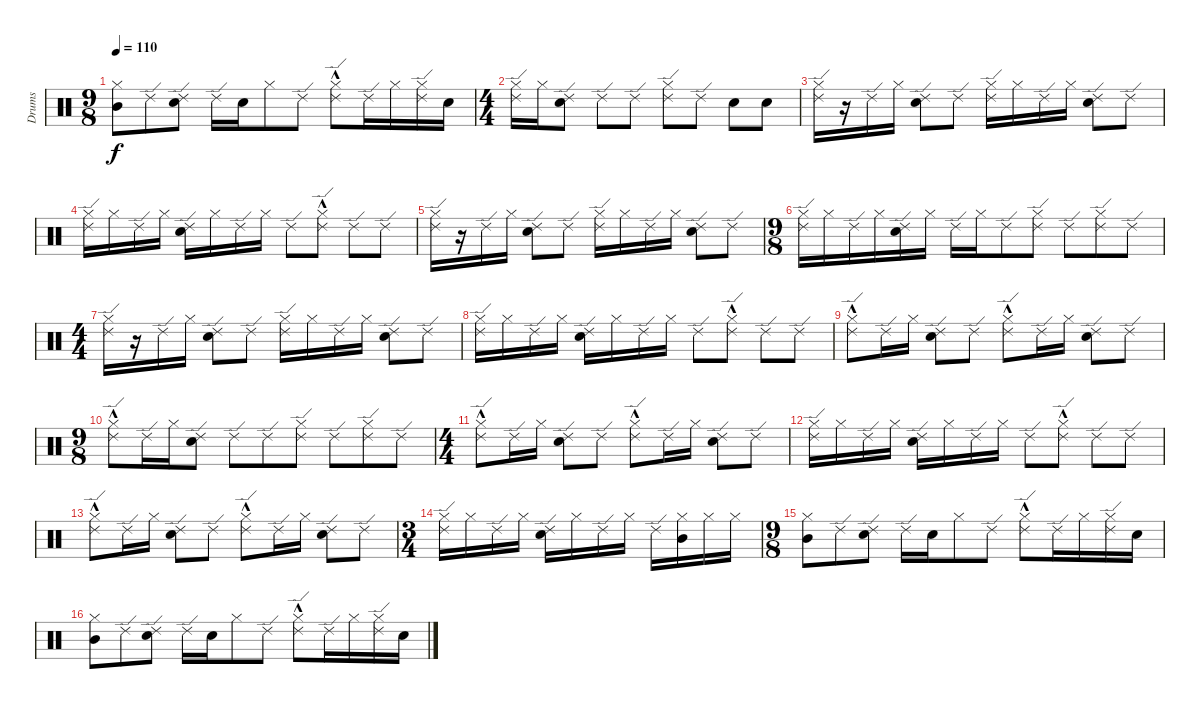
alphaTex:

\track ("Drums" "Drums") {instrument percussion}
\staff {score}
\articulation defaults
\ts (9 8)
\tempo 110
\clef neutral
\ks c
("Hi-Hat (closed)" "Mid Tom (hit)").8{dy f} "Ride (edge) 2".8 ("Snare (hit) 2" "Ride (edge) 2").8 "Ride (edge) 2".16 "Snare (hit) 2".16 "Hi-Hat (closed)".8 "Ride (edge) 2".8 ("Hi-Hat (closed)"{hac} "Ride (edge) 2").8 "Ride (edge) 2".16 "Hi-Hat (closed)".16 ("Hi-Hat (closed)" "Ride (edge) 2").16 "Snare (hit) 2".16 |
\ts (4 4)
("Hi-Hat (closed)" "Ride (edge) 2").16 "Hi-Hat (closed)".16 ("Snare (hit) 2" "Ride (edge) 2").8 "Ride (edge) 2".8 "Ride (edge) 2".8 ("Hi-Hat (closed)" "Ride (edge) 2").8 "Ride (edge) 2".8 "Snare (hit) 2".8 "Snare (hit) 2".8 |
("Hi-Hat (closed)" "Ride (edge) 2").16 r.16 "Ride (edge) 2".16 "Hi-Hat (closed)".16 ("Snare (hit) 2" "Ride (edge) 2").8 "Ride (edge) 2".8 ("Hi-Hat (closed)" "Ride (edge) 2").16 "Hi-Hat (closed)".16 "Ride (edge) 2".16 "Hi-Hat (closed)".16 ("Snare (hit) 2" "Ride (edge) 2").8 "Ride (edge) 2".8 |
("Hi-Hat (closed)" "Ride (edge) 2").16 "Hi-Hat (closed)".16 "Ride (edge) 2".16 "Hi-Hat (closed)".16 ("Snare (hit) 2" "Ride (edge) 2").16 "Hi-Hat (closed)".16 "Ride (edge) 2".16 "Hi-Hat (closed)".16 "Ride (edge) 2".8 ("Hi-Hat (closed)"{hac} "Ride (edge) 2").8 "Ride (edge) 2".8 "Ride (edge) 2".8 |
("Hi-Hat (closed)" "Ride (edge) 2").16 r.16 "Ride (edge) 2".16 "Hi-Hat (closed)".16 ("Snare (hit) 2" "Ride (edge) 2").8 "Ride (edge) 2".8 ("Hi-Hat (closed)" "Ride (edge) 2").16 "Hi-Hat (closed)".16 "Ride (edge) 2".16 "Hi-Hat (closed)".16 ("Snare (hit) 2" "Ride (edge) 2").8 "Ride (edge) 2".8 |
\ts (9 8)
("Hi-Hat (closed)" "Ride (edge) 2").16 "Hi-Hat (closed)".16 "Ride (edge) 2".16 "Hi-Hat (closed)".16 ("Snare (hit) 2" "Ride (edge) 2").16 "Hi-Hat (closed)".16 "Ride (edge) 2".16 "Hi-Hat (closed)".16 "Ride (edge) 2".8 ("Hi-Hat (closed)" "Ride (edge) 2").8 "Ride (edge) 2".8 ("Hi-Hat (closed)" "Ride (edge) 2").8 "Ride (edge) 2".8 |
\ts (4 4)
("Hi-Hat (closed)" "Ride (edge) 2").16 r.16 "Ride (edge) 2".16 "Hi-Hat (closed)".16 ("Snare (hit) 2" "Ride (edge) 2").8 "Ride (edge) 2".8 ("Hi-Hat (closed)" "Ride (edge) 2").16 "Hi-Hat (closed)".16 "Ride (edge) 2".16 "Hi-Hat (closed)".16 ("Snare (hit) 2" "Ride (edge) 2").8 "Ride (edge) 2".8 |
("Hi-Hat (closed)" "Ride (edge) 2").16 "Hi-Hat (closed)".16 "Ride (edge) 2".16 "Hi-Hat (closed)".16 ("Snare (hit) 2" "Ride (edge) 2").16 "Hi-Hat (closed)".16 "Ride (edge) 2".16 "Hi-Hat (closed)".16 "Ride (edge) 2".8 ("Hi-Hat (closed)"{hac} "Ride (edge) 2").8 "Ride (edge) 2".8 "Ride (edge) 2".8 |
("Hi-Hat (closed)"{hac} "Ride (edge) 2").8 "Ride (edge) 2".16 "Hi-Hat (closed)".16 ("Snare (hit) 2" "Ride (edge) 2").8 "Ride (edge) 2".8 ("Hi-Hat (closed)"{hac} "Ride (edge) 2").8 "Ride (edge) 2".16 "Hi-Hat (closed)".16 ("Snare (hit) 2" "Ride (edge) 2").8 "Ride (edge) 2".8 |
\ts (9 8)
("Hi-Hat (closed)"{hac} "Ride (edge) 2").8 "Ride (edge) 2".16 "Hi-Hat (closed)".16 ("Snare (hit) 2" "Ride (edge) 2").8 "Ride (edge) 2".8 "Ride (edge) 2".8 ("Hi-Hat (closed)" "Ride (edge) 2").8 "Ride (edge) 2".8 ("Hi-Hat (closed)" "Ride (edge) 2").8 "Ride (edge) 2".8 |
\ts (4 4)
("Hi-Hat (closed)"{hac} "Ride (edge) 2").8 "Ride (edge) 2".16 "Hi-Hat (closed)".16 ("Snare (hit) 2" "Ride (edge) 2").8 "Ride (edge) 2".8 ("Hi-Hat (closed)"{hac} "Ride (edge) 2").8 "Ride (edge) 2".16 "Hi-Hat (closed)".16 ("Snare (hit) 2" "Ride (edge) 2").8 "Ride (edge) 2".8 |
("Hi-Hat (closed)" "Ride (edge) 2").16 "Hi-Hat (closed)".16 "Ride (edge) 2".16 "Hi-Hat (closed)".16 ("Snare (hit) 2" "Ride (edge) 2").16 "Hi-Hat (closed)".16 "Ride (edge) 2".16 "Hi-Hat (closed)".16 "Ride (edge) 2".8 ("Hi-Hat (closed)"{hac} "Ride (edge) 2").8 "Ride (edge) 2".8 "Ride (edge) 2".8 |
("Hi-Hat (closed)"{hac} "Ride (edge) 2").8 "Ride (edge) 2".16 "Hi-Hat (closed)".16 ("Snare (hit) 2" "Ride (edge) 2").8 "Ride (edge) 2".8 ("Hi-Hat (closed)"{hac} "Ride (edge) 2").8 "Ride (edge) 2".16 "Hi-Hat (closed)".16 ("Snare (hit) 2" "Ride (edge) 2").8 "Ride (edge) 2".8 |
\ts (3 4)
("Hi-Hat (closed)" "Ride (edge) 2").16 "Hi-Hat (closed)".16 "Ride (edge) 2".16 "Hi-Hat (closed)".16 ("Snare (hit) 2" "Ride (edge) 2").16 "Hi-Hat (closed)".16 "Ride (edge) 2".16 "Hi-Hat (closed)".16 "Ride (edge) 2".16 ("Hi-Hat (closed)" "Mid Tom (hit)").16 "Hi-Hat (closed)".16 "Hi-Hat (closed)".16 |
\ts (9 8)
("Hi-Hat (closed)" "Mid Tom (hit)").8 "Ride (edge) 2".8 ("Snare (hit) 2" "Ride (edge) 2").8 "Ride (edge) 2".16 "Snare (hit) 2".16 "Hi-Hat (closed)".8 "Ride (edge) 2".8 ("Hi-Hat (closed)"{hac} "Ride (edge) 2").8 "Ride (edge) 2".16 "Hi-Hat (closed)".16 ("Hi-Hat (closed)" "Ride (edge) 2").16 "Snare (hit) 2".16 |
("Hi-Hat (closed)" "Mid Tom (hit)").8 "Ride (edge) 2".8 ("Snare (hit) 2" "Ride (edge) 2").8 "Ride (edge) 2".16 "Snare (hit) 2".16 "Hi-Hat (closed)".8 "Ride (edge) 2".8 ("Hi-Hat (closed)"{hac} "Ride (edge) 2").8 "Ride (edge) 2".16 "Hi-Hat (closed)".16 ("Hi-Hat (closed)" "Ride (edge) 2").16 "Snare (hit) 2".16
